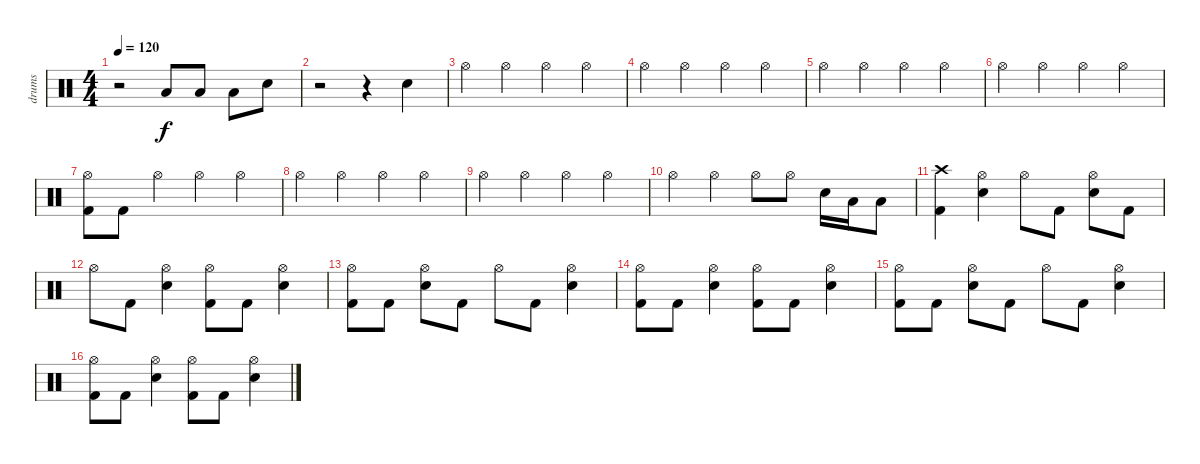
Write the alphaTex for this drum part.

\track ("drums" "drums") {instrument percussion}
\staff {score}
\articulation defaults
\ts (4 4)
\tempo 120
\clef neutral
\ks c
r.2{dy f} "Low Tom (hit)".8 "Low Tom (hit)".8 "Low Tom (hit)".8 "Electric Snare (hit)".8 |
r.2 r.4 "Electric Snare (hit)".4 |
"Hi-Hat (open)".4 "Hi-Hat (open)".4 "Hi-Hat (open)".4 "Hi-Hat (open)".4 |
"Hi-Hat (open)".4 "Hi-Hat (open)".4 "Hi-Hat (open)".4 "Hi-Hat (open)".4 |
"Hi-Hat (open)".4 "Hi-Hat (open)".4 "Hi-Hat (open)".4 "Hi-Hat (open)".4 |
"Hi-Hat (open)".4 "Hi-Hat (open)".4 "Hi-Hat (open)".4 "Hi-Hat (open)".4 |
("Hi-Hat (open)" "Kick (hit) 2").8 "Kick (hit) 2".8 "Hi-Hat (open)".4 "Hi-Hat (open)".4 "Hi-Hat (open)".4 |
"Hi-Hat (open)".4 "Hi-Hat (open)".4 "Hi-Hat (open)".4 "Hi-Hat (open)".4 |
"Hi-Hat (open)".4 "Hi-Hat (open)".4 "Hi-Hat (open)".4 "Hi-Hat (open)".4 |
"Hi-Hat (open)".4 "Hi-Hat (open)".4 "Hi-Hat (open)".8 "Hi-Hat (open)".8 "Electric Snare (hit)".16 "Low Tom (hit)".16 "Low Tom (hit)".8 |
("Crash high (hit)" "Kick (hit) 2").4 ("Hi-Hat (open)" "Electric Snare (hit)").4 "Hi-Hat (open)".8 "Kick (hit) 2".8 ("Hi-Hat (open)" "Electric Snare (hit)").8 "Kick (hit) 2".8 |
"Hi-Hat (open)".8 "Kick (hit) 2".8 ("Hi-Hat (open)" "Electric Snare (hit)").4 ("Hi-Hat (open)" "Kick (hit) 2").8 "Kick (hit) 2".8 ("Hi-Hat (open)" "Electric Snare (hit)").4 |
("Hi-Hat (open)" "Kick (hit) 2").8 "Kick (hit) 2".8 ("Hi-Hat (open)" "Electric Snare (hit)").8 "Kick (hit) 2".8 "Hi-Hat (open)".8 "Kick (hit) 2".8 ("Hi-Hat (open)" "Electric Snare (hit)").4 |
("Hi-Hat (open)" "Kick (hit) 2").8 "Kick (hit) 2".8 ("Hi-Hat (open)" "Electric Snare (hit)").4 ("Hi-Hat (open)" "Kick (hit) 2").8 "Kick (hit) 2".8 ("Hi-Hat (open)" "Electric Snare (hit)").4 |
("Hi-Hat (open)" "Kick (hit) 2").8 "Kick (hit) 2".8 ("Hi-Hat (open)" "Electric Snare (hit)").8 "Kick (hit) 2".8 "Hi-Hat (open)".8 "Kick (hit) 2".8 ("Hi-Hat (open)" "Electric Snare (hit)").4 |
("Hi-Hat (open)" "Kick (hit) 2").8 "Kick (hit) 2".8 ("Hi-Hat (open)" "Electric Snare (hit)").4 ("Hi-Hat (open)" "Kick (hit) 2").8 "Kick (hit) 2".8 ("Hi-Hat (open)" "Electric Snare (hit)").4
